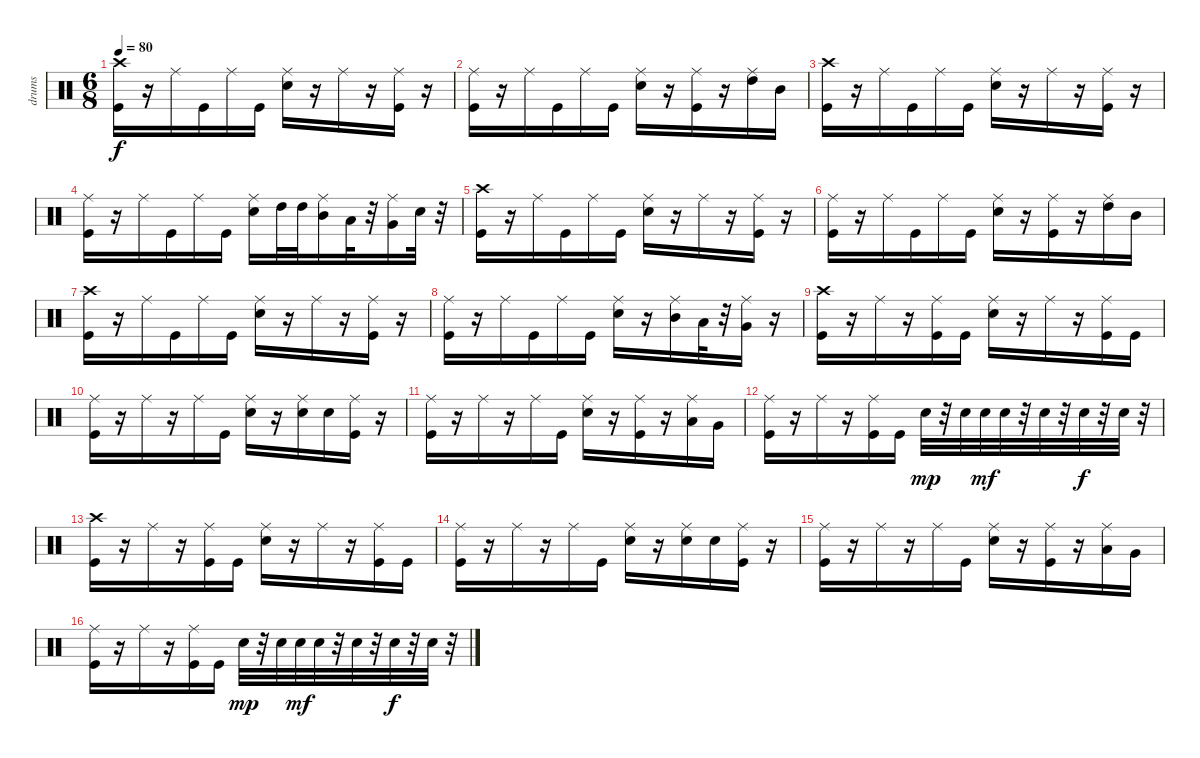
\track ("drums" "drums") {instrument percussion}
\staff {score}
\articulation defaults
\ts (6 8)
\tempo 80
\clef neutral
\ks c
("Crash high (hit)" "Kick (hit)").16{dy f} r.16 "Ride (middle)".16 "Kick (hit)".16 "Ride (middle)".16 "Kick (hit)".16 ("Electric Snare (hit)" "Ride (middle)").16 r.16 "Ride (middle)".16 r.16 ("Kick (hit)" "Ride (middle)").16 r.16 |
("Kick (hit)" "Ride (middle)").16 r.16 "Ride (middle)".16 "Kick (hit)".16 "Ride (middle)".16 "Kick (hit)".16 ("Ride (middle)" "Electric Snare (hit)").16 r.16 ("Ride (middle)" "Kick (hit)").16 r.16 ("High Tom (hit)" "Ride (middle)").16 "Mid Tom (hit)".16 |
("Kick (hit)" "Crash high (hit)").16 r.16 "Ride (middle)".16 "Kick (hit)".16 "Ride (middle)".16 "Kick (hit)".16 ("Electric Snare (hit)" "Ride (middle)").16 r.16 "Ride (middle)".16 r.16 ("Kick (hit)" "Ride (middle)").16 r.16 |
("Kick (hit)" "Ride (middle)").16 r.16 "Ride (middle)".16 "Kick (hit)".16 "Ride (middle)".16 "Kick (hit)".16 ("Ride (middle)" "Electric Snare (hit)").16 "High Tom (hit)".32 "High Tom (hit)".32 ("Mid Tom (hit)" "Ride (middle)").16 "Low Tom (hit)".32 r.32 ("Very Low Tom (hit)" "Ride (middle)").16 "Electric Snare (hit)".32 r.32 |
("Crash high (hit)" "Kick (hit)").16 r.16 "Ride (middle)".16 "Kick (hit)".16 "Ride (middle)".16 "Kick (hit)".16 ("Electric Snare (hit)" "Ride (middle)").16 r.16 "Ride (middle)".16 r.16 ("Kick (hit)" "Ride (middle)").16 r.16 |
("Kick (hit)" "Ride (middle)").16 r.16 "Ride (middle)".16 "Kick (hit)".16 "Ride (middle)".16 "Kick (hit)".16 ("Ride (middle)" "Electric Snare (hit)").16 r.16 ("Ride (middle)" "Kick (hit)").16 r.16 ("High Tom (hit)" "Ride (middle)").16 "Mid Tom (hit)".16 |
("Crash high (hit)" "Kick (hit)").16 r.16 "Ride (middle)".16 "Kick (hit)".16 "Ride (middle)".16 "Kick (hit)".16 ("Electric Snare (hit)" "Ride (middle)").16 r.16 "Ride (middle)".16 r.16 ("Kick (hit)" "Ride (middle)").16 r.16 |
("Kick (hit)" "Ride (middle)").16 r.16 "Ride (middle)".16 "Kick (hit)".16 "Ride (middle)".16 "Kick (hit)".16 ("Ride (middle)" "Electric Snare (hit)").16 r.16 ("Ride (middle)" "Mid Tom (hit)").16 "Low Tom (hit)".32 r.32 ("Ride (middle)" "Very Low Tom (hit)").16 r.16 |
("Kick (hit)" "Crash high (hit)").16 r.16 "Ride (middle)".16 r.16 ("Kick (hit)" "Ride (middle)").16 "Kick (hit)".16 ("Electric Snare (hit)" "Ride (middle)").16 r.16 "Ride (middle)".16 r.16 ("Kick (hit)" "Ride (middle)").16 "Kick (hit)".16 |
("Ride (middle)" "Kick (hit)").16 r.16 "Ride (middle)".16 r.16 "Ride (middle)".16 "Kick (hit)".16 ("Ride (middle)" "Electric Snare (hit)").16 r.16 ("Ride (middle)" "Electric Snare (hit)").16 "Electric Snare (hit)".16 ("Kick (hit)" "Ride (middle)").16 r.16 |
("Ride (middle)" "Kick (hit)").16 r.16 "Ride (middle)".16 r.16 "Ride (middle)".16 "Kick (hit)".16 ("Electric Snare (hit)" "Ride (middle)").16 r.16 ("Ride (middle)" "Kick (hit)").16 r.16 ("Ride (middle)" "Low Tom (hit)").16 "Very Low Tom (hit)".16 |
("Ride (middle)" "Kick (hit)").16 r.16 "Ride (middle)".16 r.16 ("Kick (hit)" "Ride (middle)").16 "Kick (hit)".16 "Electric Snare (hit)".32{dy mp} r.32 "Electric Snare (hit)".32 "Electric Snare (hit)".32{dy mf} "Electric Snare (hit)".32 r.32 "Electric Snare (hit)".32 r.32 "Electric Snare (hit)".32{dy f} r.32 "Electric Snare (hit)".32 r.32 |
("Crash high (hit)" "Kick (hit)").16 r.16 "Ride (middle)".16 r.16 ("Kick (hit)" "Ride (middle)").16 "Kick (hit)".16 ("Electric Snare (hit)" "Ride (middle)").16 r.16 "Ride (middle)".16 r.16 ("Kick (hit)" "Ride (middle)").16 "Kick (hit)".16 |
("Ride (middle)" "Kick (hit)").16 r.16 "Ride (middle)".16 r.16 "Ride (middle)".16 "Kick (hit)".16 ("Electric Snare (hit)" "Ride (middle)").16 r.16 ("Electric Snare (hit)" "Ride (middle)").16 "Electric Snare (hit)".16 ("Kick (hit)" "Ride (middle)").16 r.16 |
("Ride (middle)" "Kick (hit)").16 r.16 "Ride (middle)".16 r.16 "Ride (middle)".16 "Kick (hit)".16 ("Electric Snare (hit)" "Ride (middle)").16 r.16 ("Kick (hit)" "Ride (middle)").16 r.16 ("Low Tom (hit)" "Ride (middle)").16 "Very Low Tom (hit)".16 |
("Kick (hit)" "Ride (middle)").16 r.16 "Ride (middle)".16 r.16 ("Kick (hit)" "Ride (middle)").16 "Kick (hit)".16 "Electric Snare (hit)".32{dy mp} r.32 "Electric Snare (hit)".32 "Electric Snare (hit)".32{dy mf} "Electric Snare (hit)".32 r.32 "Electric Snare (hit)".32 r.32 "Electric Snare (hit)".32{dy f} r.32 "Electric Snare (hit)".32 r.32
